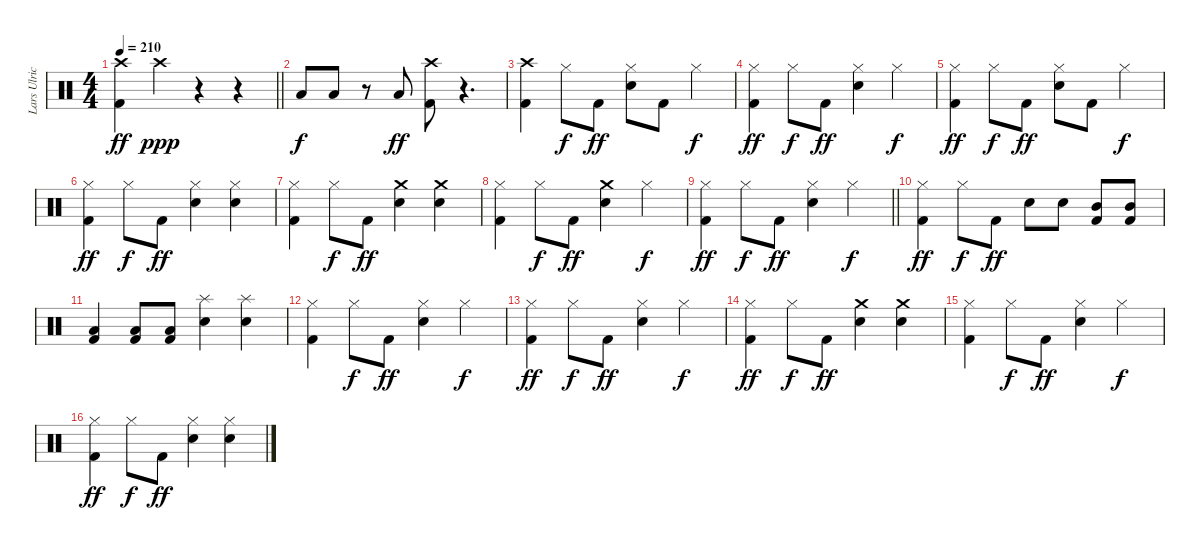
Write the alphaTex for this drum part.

\track ("Lars Ulrich" "Lars Ulric") {instrument percussion}
\staff {score}
\articulation defaults
\ts (4 4)
\tempo 210
\clef neutral
\barLineRight lightlight
\ks c
("Crash high (hit)" "Kick (hit) 2").4{dy ff} "Crash high (hit)".4{dy ppp volume 0} r.4 r.4 |
"Low Tom (hit)".8{dy f volume 14} "Low Tom (hit)".8 r.8 "Low Tom (hit)".8{dy ff} ("Crash high (hit)" "Kick (hit) 2").8 r.4{d} |
("Crash high (hit)" "Kick (hit) 2").4 "Hi-Hat (closed)".8{dy f} "Kick (hit) 2".8{dy ff} ("Hi-Hat (closed)" "Snare (hit) 2").8 "Kick (hit) 2".8 "Hi-Hat (closed)".4{dy f} |
("Hi-Hat (closed)" "Kick (hit) 2").4{dy ff} "Hi-Hat (closed)".8{dy f} "Kick (hit) 2".8{dy ff} ("Hi-Hat (closed)" "Snare (hit) 2").4 "Hi-Hat (closed)".4{dy f} |
("Hi-Hat (closed)" "Kick (hit) 2").4{dy ff} "Hi-Hat (closed)".8{dy f} "Kick (hit) 2".8{dy ff} ("Hi-Hat (closed)" "Snare (hit) 2").8 "Kick (hit) 2".8 "Hi-Hat (closed)".4{dy f} |
("Hi-Hat (closed)" "Kick (hit) 2").4{dy ff} "Hi-Hat (closed)".8{dy f} "Kick (hit) 2".8{dy ff} ("Hi-Hat (closed)" "Snare (hit) 2").4 ("Hi-Hat (closed)" "Snare (hit) 2").4 |
("Hi-Hat (closed)" "Kick (hit) 2").4 "Hi-Hat (closed)".8{dy f} "Kick (hit) 2".8{dy ff} ("Crash medium (hit)" "Snare (hit) 2").4 ("Crash medium (hit)" "Snare (hit) 2").4 |
("Hi-Hat (closed)" "Kick (hit) 2").4 "Hi-Hat (closed)".8{dy f} "Kick (hit) 2".8{dy ff} ("Crash medium (hit)" "Snare (hit) 2").4 "Hi-Hat (closed)".4{dy f} |
\barLineRight lightlight
("Hi-Hat (closed)" "Kick (hit) 2").4{dy ff} "Hi-Hat (closed)".8{dy f} "Kick (hit) 2".8{dy ff} ("Hi-Hat (closed)" "Snare (hit) 2").4 "Hi-Hat (closed)".4{dy f} |
("Hi-Hat (closed)" "Kick (hit) 2").4{dy ff} "Hi-Hat (closed)".8{dy f} "Kick (hit) 2".8{dy ff} "Snare (hit) 2".8 "Snare (hit) 2".8 ("Mid Tom (hit)" "Kick (hit) 2").8 ("Mid Tom (hit)" "Kick (hit) 2").8 |
("Low Tom (hit)" "Kick (hit) 2").4 ("Low Tom (hit)" "Kick (hit) 2").8 ("Low Tom (hit)" "Kick (hit) 2").8 ("Splash (hit)" "Snare (hit) 2").4 ("Splash (hit)" "Snare (hit) 2").4 |
("Hi-Hat (closed)" "Kick (hit) 2").4 "Hi-Hat (closed)".8{dy f} "Kick (hit) 2".8{dy ff} ("Hi-Hat (closed)" "Snare (hit) 2").4 "Hi-Hat (closed)".4{dy f} |
("Hi-Hat (closed)" "Kick (hit) 2").4{dy ff} "Hi-Hat (closed)".8{dy f} "Kick (hit) 2".8{dy ff} ("Hi-Hat (closed)" "Snare (hit) 2").4 "Hi-Hat (closed)".4{dy f} |
("Hi-Hat (closed)" "Kick (hit) 2").4{dy ff} "Hi-Hat (closed)".8{dy f} "Kick (hit) 2".8{dy ff} ("Crash medium (hit)" "Snare (hit) 2").4 ("Crash medium (hit)" "Snare (hit) 2").4 |
("Hi-Hat (closed)" "Kick (hit) 2").4 "Hi-Hat (closed)".8{dy f} "Kick (hit) 2".8{dy ff} ("Hi-Hat (closed)" "Snare (hit) 2").4 "Hi-Hat (closed)".4{dy f} |
("Hi-Hat (closed)" "Kick (hit) 2").4{dy ff} "Hi-Hat (closed)".8{dy f} "Kick (hit) 2".8{dy ff} ("Hi-Hat (closed)" "Snare (hit) 2").4 ("Hi-Hat (closed)" "Snare (hit) 2").4
